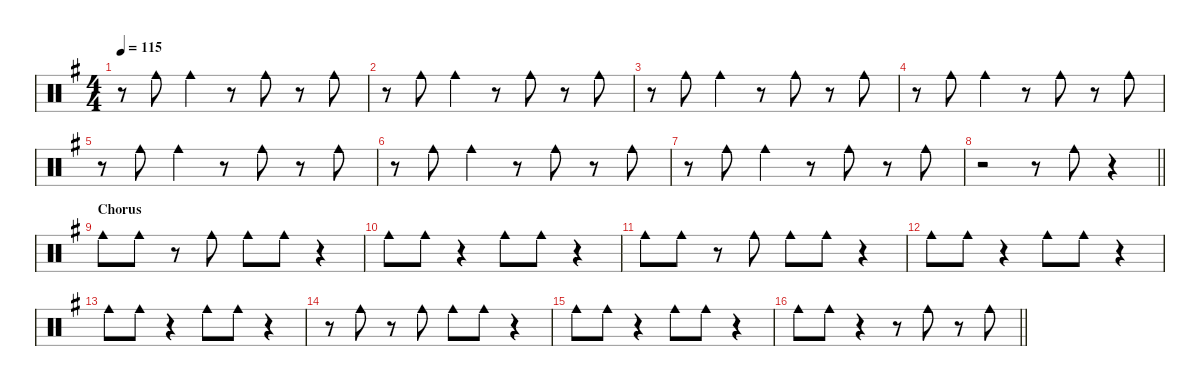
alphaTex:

\defaultSystemsLayout 8
\hideDynamics
\bracketExtendMode nobrackets
\singleTrackTrackNamePolicy hidden
\multiTrackTrackNamePolicy hidden
\otherSystemsTrackNameOrientation horizontal
\track ("Cowbell" "drm.") {defaultSystemsLayout 8 instrument percussion}
\staff {score}
\articulation defaults
\ts (4 4)
\tempo 115
\clef neutral
\ks g
r.8{dy f beam Down} "Cowbell medium (hit)"{acc forcenatural}.8{beam Down} "Cowbell medium (hit)"{acc forcenatural}.4{beam Down} r.8{beam Down} "Cowbell medium (hit)"{acc forcenatural}.8{beam Down} r.8{beam Down} "Cowbell medium (hit)"{acc forcenatural}.8{beam Down} |
r.8{beam Down} "Cowbell medium (hit)"{acc forcenatural}.8{beam Down} "Cowbell medium (hit)"{acc forcenatural}.4{beam Down} r.8{beam Down} "Cowbell medium (hit)"{acc forcenatural}.8{beam Down} r.8{beam Down} "Cowbell medium (hit)"{acc forcenatural}.8{beam Down} |
r.8{beam Down} "Cowbell medium (hit)"{acc forcenatural}.8{beam Down} "Cowbell medium (hit)"{acc forcenatural}.4{beam Down} r.8{beam Down} "Cowbell medium (hit)"{acc forcenatural}.8{beam Down} r.8{beam Down} "Cowbell medium (hit)"{acc forcenatural}.8{beam Down} |
r.8{beam Down} "Cowbell medium (hit)"{acc forcenatural}.8{beam Down} "Cowbell medium (hit)"{acc forcenatural}.4{beam Down} r.8{beam Down} "Cowbell medium (hit)"{acc forcenatural}.8{beam Down} r.8{beam Down} "Cowbell medium (hit)"{acc forcenatural}.8{beam Down} |
r.8{beam Down} "Cowbell medium (hit)"{acc forcenatural}.8{beam Down} "Cowbell medium (hit)"{acc forcenatural}.4{beam Down} r.8{beam Down} "Cowbell medium (hit)"{acc forcenatural}.8{beam Down} r.8{beam Down} "Cowbell medium (hit)"{acc forcenatural}.8{beam Down} |
r.8{beam Down} "Cowbell medium (hit)"{acc forcenatural}.8{beam Down} "Cowbell medium (hit)"{acc forcenatural}.4{beam Down} r.8{beam Down} "Cowbell medium (hit)"{acc forcenatural}.8{beam Down} r.8{beam Down} "Cowbell medium (hit)"{acc forcenatural}.8{beam Down} |
r.8{beam Down} "Cowbell medium (hit)"{acc forcenatural}.8{beam Down} "Cowbell medium (hit)"{acc forcenatural}.4{beam Down} r.8{beam Down} "Cowbell medium (hit)"{acc forcenatural}.8{beam Down} r.8{beam Down} "Cowbell medium (hit)"{acc forcenatural}.8{beam Down} |
\barLineRight lightlight
r.2{beam Down} r.8{beam Down} "Cowbell medium (hit)"{acc forcenatural}.8{beam Down} r.4{beam Down} |
\section ("" "Chorus")
"Cowbell medium (hit)"{acc forcenatural}.8{beam Down} "Cowbell medium (hit)"{acc forcenatural}.8{beam Down} r.8{beam Down} "Cowbell medium (hit)"{acc forcenatural}.8{beam Down} "Cowbell medium (hit)"{acc forcenatural}.8{beam Down} "Cowbell medium (hit)"{acc forcenatural}.8{beam Down} r.4{beam Down} |
"Cowbell medium (hit)"{acc forcenatural}.8{beam Down} "Cowbell medium (hit)"{acc forcenatural}.8{beam Down} r.4{beam Down} "Cowbell medium (hit)"{acc forcenatural}.8{beam Down} "Cowbell medium (hit)"{acc forcenatural}.8{beam Down} r.4{beam Down} |
"Cowbell medium (hit)"{acc forcenatural}.8{beam Down} "Cowbell medium (hit)"{acc forcenatural}.8{beam Down} r.8{beam Down} "Cowbell medium (hit)"{acc forcenatural}.8{beam Down} "Cowbell medium (hit)"{acc forcenatural}.8{beam Down} "Cowbell medium (hit)"{acc forcenatural}.8{beam Down} r.4{beam Down} |
"Cowbell medium (hit)"{acc forcenatural}.8{beam Down} "Cowbell medium (hit)"{acc forcenatural}.8{beam Down} r.4{beam Down} "Cowbell medium (hit)"{acc forcenatural}.8{beam Down} "Cowbell medium (hit)"{acc forcenatural}.8{beam Down} r.4{beam Down} |
"Cowbell medium (hit)"{acc forcenatural}.8{beam Down} "Cowbell medium (hit)"{acc forcenatural}.8{beam Down} r.4{beam Down} "Cowbell medium (hit)"{acc forcenatural}.8{beam Down} "Cowbell medium (hit)"{acc forcenatural}.8{beam Down} r.4{beam Down} |
r.8{beam Down} "Cowbell medium (hit)"{acc forcenatural}.8{beam Down} r.8{beam Down} "Cowbell medium (hit)"{acc forcenatural}.8{beam Down} "Cowbell medium (hit)"{acc forcenatural}.8{beam Down} "Cowbell medium (hit)"{acc forcenatural}.8{beam Down} r.4{beam Down} |
"Cowbell medium (hit)"{acc forcenatural}.8{beam Down} "Cowbell medium (hit)"{acc forcenatural}.8{beam Down} r.4{beam Down} "Cowbell medium (hit)"{acc forcenatural}.8{beam Down} "Cowbell medium (hit)"{acc forcenatural}.8{beam Down} r.4{beam Down} |
\barLineRight lightlight "Cowbell medium (hit)"{acc forcenatural}.8{beam Down} "Cowbell medium (hit)"{acc forcenatural}.8{beam Down}
r.4{beam Down} r.8{beam Down} "Cowbell medium (hit)"{acc forcenatural}.8{beam Down} r.8{beam Down} "Cowbell medium (hit)"{acc forcenatural}.8{beam Down}
